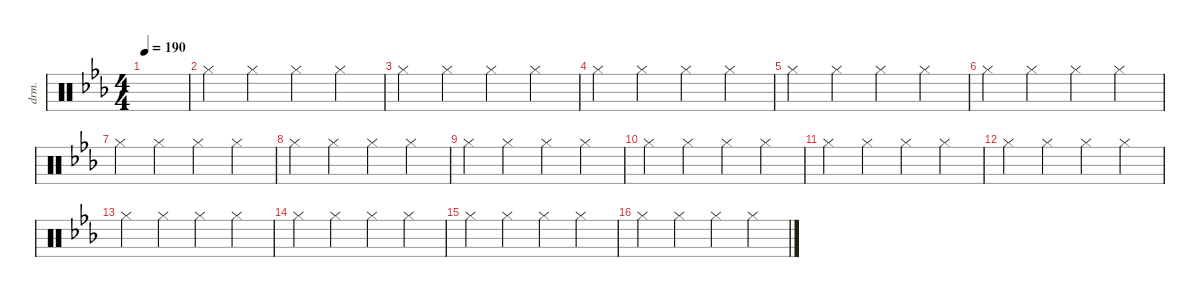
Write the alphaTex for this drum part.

\defaultSystemsLayout 4
\hideDynamics
\bracketExtendMode nobrackets
\track ("节拍器" "drm.") {instrument percussion}
\staff {score}
\articulation defaults
\ts (4 4)
\tempo 190
\clef neutral
\ks cminor
|
"Hi-Hat (closed)"{acc forcenatural}.4{beam Down} "Hi-Hat (closed)"{acc forcenatural}.4{beam Down} "Hi-Hat (closed)"{acc forcenatural}.4{beam Down} "Hi-Hat (closed)"{acc forcenatural}.4{beam Down} |
"Hi-Hat (closed)"{acc forcenatural}.4{beam Down} "Hi-Hat (closed)"{acc forcenatural}.4{beam Down} "Hi-Hat (closed)"{acc forcenatural}.4{beam Down} "Hi-Hat (closed)"{acc forcenatural}.4{beam Down} |
"Hi-Hat (closed)"{acc forcenatural}.4{beam Down} "Hi-Hat (closed)"{acc forcenatural}.4{beam Down} "Hi-Hat (closed)"{acc forcenatural}.4{beam Down} "Hi-Hat (closed)"{acc forcenatural}.4{beam Down} |
"Hi-Hat (closed)"{acc forcenatural}.4{beam Down} "Hi-Hat (closed)"{acc forcenatural}.4{beam Down} "Hi-Hat (closed)"{acc forcenatural}.4{beam Down} "Hi-Hat (closed)"{acc forcenatural}.4{beam Down} |
"Hi-Hat (closed)"{acc forcenatural}.4{beam Down} "Hi-Hat (closed)"{acc forcenatural}.4{beam Down} "Hi-Hat (closed)"{acc forcenatural}.4{beam Down} "Hi-Hat (closed)"{acc forcenatural}.4{beam Down} |
"Hi-Hat (closed)"{acc forcenatural}.4{beam Down} "Hi-Hat (closed)"{acc forcenatural}.4{beam Down} "Hi-Hat (closed)"{acc forcenatural}.4{beam Down} "Hi-Hat (closed)"{acc forcenatural}.4{beam Down} |
"Hi-Hat (closed)"{acc forcenatural}.4{beam Down} "Hi-Hat (closed)"{acc forcenatural}.4{beam Down} "Hi-Hat (closed)"{acc forcenatural}.4{beam Down} "Hi-Hat (closed)"{acc forcenatural}.4{beam Down} |
"Hi-Hat (closed)"{acc forcenatural}.4{beam Down} "Hi-Hat (closed)"{acc forcenatural}.4{beam Down} "Hi-Hat (closed)"{acc forcenatural}.4{beam Down} "Hi-Hat (closed)"{acc forcenatural}.4{beam Down} |
"Hi-Hat (closed)"{acc forcenatural}.4{beam Down} "Hi-Hat (closed)"{acc forcenatural}.4{beam Down} "Hi-Hat (closed)"{acc forcenatural}.4{beam Down} "Hi-Hat (closed)"{acc forcenatural}.4{beam Down} |
"Hi-Hat (closed)"{acc forcenatural}.4{beam Down} "Hi-Hat (closed)"{acc forcenatural}.4{beam Down} "Hi-Hat (closed)"{acc forcenatural}.4{beam Down} "Hi-Hat (closed)"{acc forcenatural}.4{beam Down} |
"Hi-Hat (closed)"{acc forcenatural}.4{beam Down} "Hi-Hat (closed)"{acc forcenatural}.4{beam Down} "Hi-Hat (closed)"{acc forcenatural}.4{beam Down} "Hi-Hat (closed)"{acc forcenatural}.4{beam Down} |
"Hi-Hat (closed)"{acc forcenatural}.4{beam Down} "Hi-Hat (closed)"{acc forcenatural}.4{beam Down} "Hi-Hat (closed)"{acc forcenatural}.4{beam Down} "Hi-Hat (closed)"{acc forcenatural}.4{beam Down} |
"Hi-Hat (closed)"{acc forcenatural}.4{beam Down} "Hi-Hat (closed)"{acc forcenatural}.4{beam Down} "Hi-Hat (closed)"{acc forcenatural}.4{beam Down} "Hi-Hat (closed)"{acc forcenatural}.4{beam Down} |
"Hi-Hat (closed)"{acc forcenatural}.4{beam Down} "Hi-Hat (closed)"{acc forcenatural}.4{beam Down} "Hi-Hat (closed)"{acc forcenatural}.4{beam Down} "Hi-Hat (closed)"{acc forcenatural}.4{beam Down} |
"Hi-Hat (closed)"{acc forcenatural}.4{beam Down} "Hi-Hat (closed)"{acc forcenatural}.4{beam Down} "Hi-Hat (closed)"{acc forcenatural}.4{beam Down} "Hi-Hat (closed)"{acc forcenatural}.4{beam Down}
